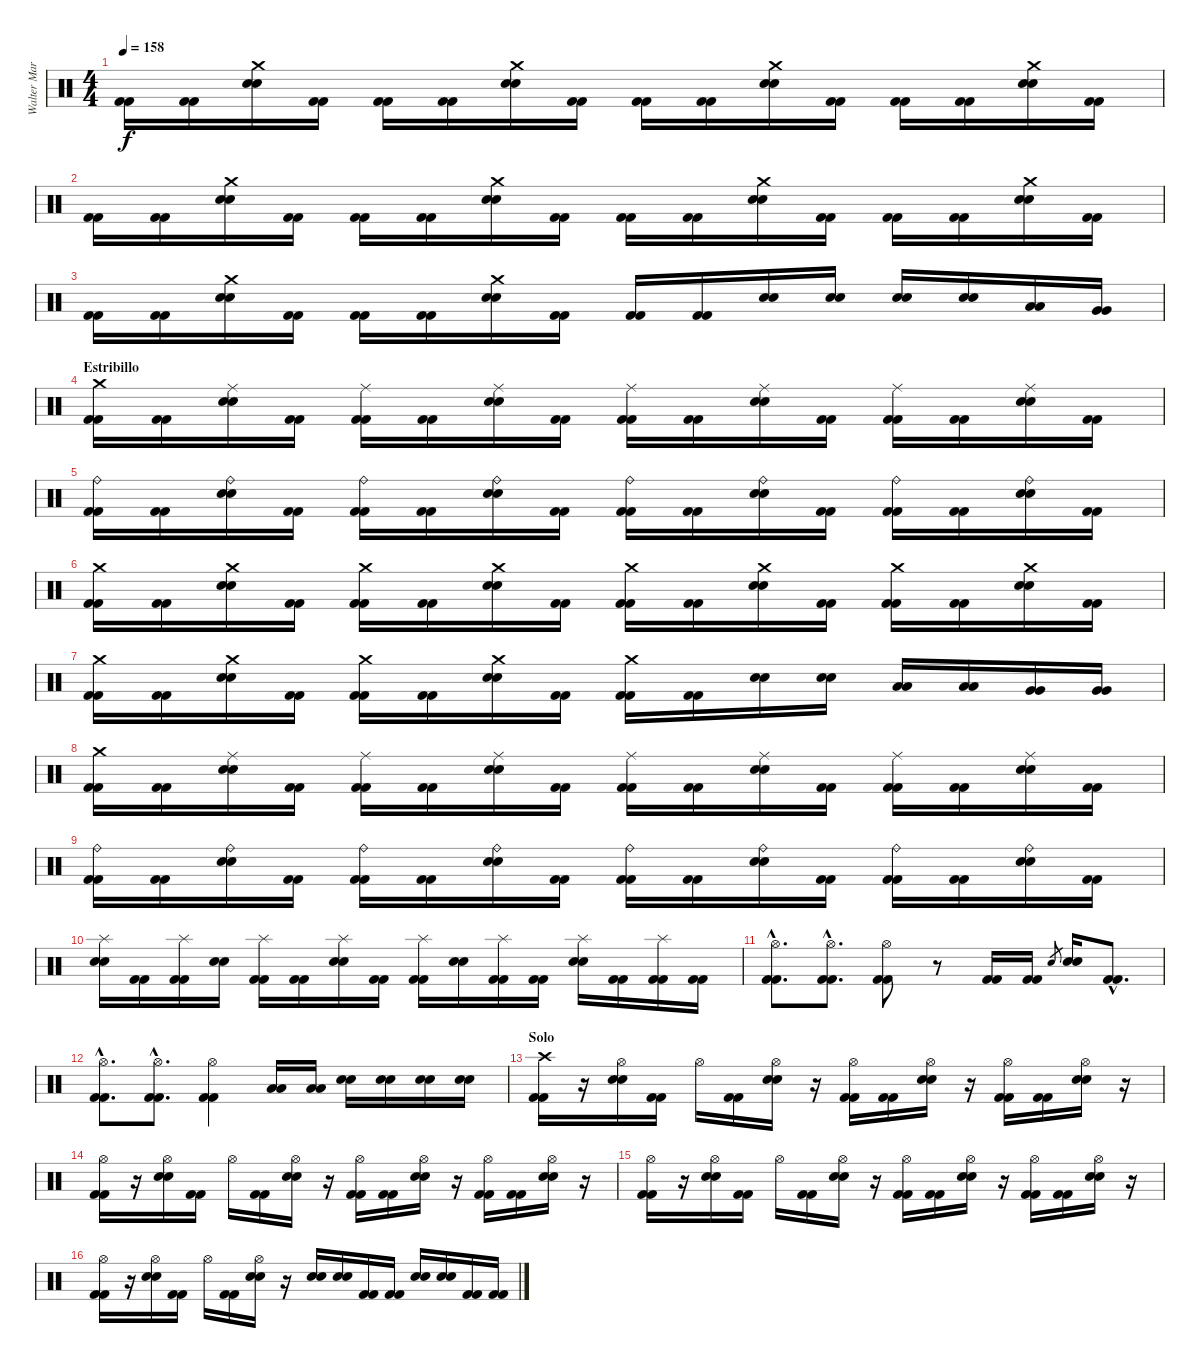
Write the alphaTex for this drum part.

\track ("Walter Martinez (Bateria)" "Walter Mar") {instrument percussion}
\staff {score}
\articulation defaults
\ts (4 4)
\tempo 158
\clef neutral
\ks c
("Kick (hit) 2" "Kick (hit) 2").16{dy f} ("Kick (hit) 2" "Kick (hit) 2").16 ("Crash medium (hit)" "Snare (hit) 2" "Snare (hit) 2").16 ("Kick (hit) 2" "Kick (hit) 2").16 ("Kick (hit) 2" "Kick (hit) 2").16 ("Kick (hit) 2" "Kick (hit) 2").16 ("Crash medium (hit)" "Snare (hit) 2" "Snare (hit) 2").16 ("Kick (hit) 2" "Kick (hit) 2").16 ("Kick (hit) 2" "Kick (hit) 2").16 ("Kick (hit) 2" "Kick (hit) 2").16 ("Crash medium (hit)" "Snare (hit) 2" "Snare (hit) 2").16 ("Kick (hit) 2" "Kick (hit) 2").16 ("Kick (hit) 2" "Kick (hit) 2").16 ("Kick (hit) 2" "Kick (hit) 2").16 ("Crash medium (hit)" "Snare (hit) 2" "Snare (hit) 2").16 ("Kick (hit) 2" "Kick (hit) 2").16 |
("Kick (hit) 2" "Kick (hit) 2").16 ("Kick (hit) 2" "Kick (hit) 2").16 ("Crash medium (hit)" "Snare (hit) 2" "Snare (hit) 2").16 ("Kick (hit) 2" "Kick (hit) 2").16 ("Kick (hit) 2" "Kick (hit) 2").16 ("Kick (hit) 2" "Kick (hit) 2").16 ("Crash medium (hit)" "Snare (hit) 2" "Snare (hit) 2").16 ("Kick (hit) 2" "Kick (hit) 2").16 ("Kick (hit) 2" "Kick (hit) 2").16 ("Kick (hit) 2" "Kick (hit) 2").16 ("Crash medium (hit)" "Snare (hit) 2" "Snare (hit) 2").16 ("Kick (hit) 2" "Kick (hit) 2").16 ("Kick (hit) 2" "Kick (hit) 2").16 ("Kick (hit) 2" "Kick (hit) 2").16 ("Crash medium (hit)" "Snare (hit) 2" "Snare (hit) 2").16 ("Kick (hit) 2" "Kick (hit) 2").16 |
("Kick (hit) 2" "Kick (hit) 2").16 ("Kick (hit) 2" "Kick (hit) 2").16 ("Crash medium (hit)" "Snare (hit) 2" "Snare (hit) 2").16 ("Kick (hit) 2" "Kick (hit) 2").16 ("Kick (hit) 2" "Kick (hit) 2").16 ("Kick (hit) 2" "Kick (hit) 2").16 ("Crash medium (hit)" "Snare (hit) 2" "Snare (hit) 2").16 ("Kick (hit) 2" "Kick (hit) 2").16 ("Kick (hit) 2" "Kick (hit) 2").16 ("Kick (hit) 2" "Kick (hit) 2").16 ("Snare (hit) 2" "Snare (hit) 2").16 ("Snare (hit) 2" "Snare (hit) 2").16 ("Snare (hit) 2" "Snare (hit) 2").16 ("Snare (hit) 2" "Snare (hit) 2").16 ("Low Tom (hit)" "Low Tom (hit)").16 ("Very Low Tom (hit)" "Very Low Tom (hit)").16 |
\section ("" "Estribillo")
("Crash medium (hit)" "Kick (hit) 2" "Kick (hit) 2").16 ("Kick (hit) 2" "Kick (hit) 2").16 ("Ride (middle)" "Snare (hit) 2" "Snare (hit) 2").16 ("Kick (hit) 2" "Kick (hit) 2").16 ("Ride (middle)" "Kick (hit) 2" "Kick (hit) 2").16 ("Kick (hit) 2" "Kick (hit) 2").16 ("Ride (middle)" "Snare (hit) 2" "Snare (hit) 2").16 ("Kick (hit) 2" "Kick (hit) 2").16 ("Ride (middle)" "Kick (hit) 2" "Kick (hit) 2").16 ("Kick (hit) 2" "Kick (hit) 2").16 ("Ride (middle)" "Snare (hit) 2" "Snare (hit) 2").16 ("Kick (hit) 2" "Kick (hit) 2").16 ("Ride (middle)" "Kick (hit) 2" "Kick (hit) 2").16 ("Kick (hit) 2" "Kick (hit) 2").16 ("Ride (middle)" "Snare (hit) 2" "Snare (hit) 2").16 ("Kick (hit) 2" "Kick (hit) 2").16 |
("Ride (bell)" "Kick (hit) 2" "Kick (hit) 2").16 ("Kick (hit) 2" "Kick (hit) 2").16 ("Ride (bell)" "Snare (hit) 2" "Snare (hit) 2").16 ("Kick (hit) 2" "Kick (hit) 2").16 ("Ride (bell)" "Kick (hit) 2" "Kick (hit) 2").16 ("Kick (hit) 2" "Kick (hit) 2").16 ("Ride (bell)" "Snare (hit) 2" "Snare (hit) 2").16 ("Kick (hit) 2" "Kick (hit) 2").16 ("Ride (bell)" "Kick (hit) 2" "Kick (hit) 2").16 ("Kick (hit) 2" "Kick (hit) 2").16 ("Ride (bell)" "Snare (hit) 2" "Snare (hit) 2").16 ("Kick (hit) 2" "Kick (hit) 2").16 ("Ride (bell)" "Kick (hit) 2" "Kick (hit) 2").16 ("Kick (hit) 2" "Kick (hit) 2").16 ("Ride (bell)" "Snare (hit) 2" "Snare (hit) 2").16 ("Kick (hit) 2" "Kick (hit) 2").16 |
("Crash medium (hit)" "Kick (hit) 2" "Kick (hit) 2").16 ("Kick (hit) 2" "Kick (hit) 2").16 ("Crash medium (hit)" "Snare (hit) 2" "Snare (hit) 2").16 ("Kick (hit) 2" "Kick (hit) 2").16 ("Crash medium (hit)" "Kick (hit) 2" "Kick (hit) 2").16 ("Kick (hit) 2" "Kick (hit) 2").16 ("Crash medium (hit)" "Snare (hit) 2" "Snare (hit) 2").16 ("Kick (hit) 2" "Kick (hit) 2").16 ("Crash medium (hit)" "Kick (hit) 2" "Kick (hit) 2").16 ("Kick (hit) 2" "Kick (hit) 2").16 ("Crash medium (hit)" "Snare (hit) 2" "Snare (hit) 2").16 ("Kick (hit) 2" "Kick (hit) 2").16 ("Crash medium (hit)" "Kick (hit) 2" "Kick (hit) 2").16 ("Kick (hit) 2" "Kick (hit) 2").16 ("Crash medium (hit)" "Snare (hit) 2" "Snare (hit) 2").16 ("Kick (hit) 2" "Kick (hit) 2").16 |
("Crash medium (hit)" "Kick (hit) 2" "Kick (hit) 2").16 ("Kick (hit) 2" "Kick (hit) 2").16 ("Crash medium (hit)" "Snare (hit) 2" "Snare (hit) 2").16 ("Kick (hit) 2" "Kick (hit) 2").16 ("Crash medium (hit)" "Kick (hit) 2" "Kick (hit) 2").16 ("Kick (hit) 2" "Kick (hit) 2").16 ("Crash medium (hit)" "Snare (hit) 2" "Snare (hit) 2").16 ("Kick (hit) 2" "Kick (hit) 2").16 ("Crash medium (hit)" "Kick (hit) 2" "Kick (hit) 2").16 ("Kick (hit) 2" "Kick (hit) 2").16 ("Snare (hit) 2" "Snare (hit) 2").16 ("Snare (hit) 2" "Snare (hit) 2").16 ("Low Tom (hit)" "Low Tom (hit)").16 ("Low Tom (hit)" "Low Tom (hit)").16 ("Very Low Tom (hit)" "Very Low Tom (hit)").16 ("Very Low Tom (hit)" "Very Low Tom (hit)").16 |
("Crash medium (hit)" "Kick (hit) 2" "Kick (hit) 2").16 ("Kick (hit) 2" "Kick (hit) 2").16 ("Ride (middle)" "Snare (hit) 2" "Snare (hit) 2").16 ("Kick (hit) 2" "Kick (hit) 2").16 ("Ride (middle)" "Kick (hit) 2" "Kick (hit) 2").16 ("Kick (hit) 2" "Kick (hit) 2").16 ("Ride (middle)" "Snare (hit) 2" "Snare (hit) 2").16 ("Kick (hit) 2" "Kick (hit) 2").16 ("Ride (middle)" "Kick (hit) 2" "Kick (hit) 2").16 ("Kick (hit) 2" "Kick (hit) 2").16 ("Ride (middle)" "Snare (hit) 2" "Snare (hit) 2").16 ("Kick (hit) 2" "Kick (hit) 2").16 ("Ride (middle)" "Kick (hit) 2" "Kick (hit) 2").16 ("Kick (hit) 2" "Kick (hit) 2").16 ("Ride (middle)" "Snare (hit) 2" "Snare (hit) 2").16 ("Kick (hit) 2" "Kick (hit) 2").16 |
("Ride (bell)" "Kick (hit) 2" "Kick (hit) 2").16 ("Kick (hit) 2" "Kick (hit) 2").16 ("Ride (bell)" "Snare (hit) 2" "Snare (hit) 2").16 ("Kick (hit) 2" "Kick (hit) 2").16 ("Ride (bell)" "Kick (hit) 2" "Kick (hit) 2").16 ("Kick (hit) 2" "Kick (hit) 2").16 ("Ride (bell)" "Snare (hit) 2" "Snare (hit) 2").16 ("Kick (hit) 2" "Kick (hit) 2").16 ("Ride (bell)" "Kick (hit) 2" "Kick (hit) 2").16 ("Kick (hit) 2" "Kick (hit) 2").16 ("Ride (bell)" "Snare (hit) 2" "Snare (hit) 2").16 ("Kick (hit) 2" "Kick (hit) 2").16 ("Ride (bell)" "Kick (hit) 2" "Kick (hit) 2").16 ("Kick (hit) 2" "Kick (hit) 2").16 ("Ride (bell)" "Snare (hit) 2" "Snare (hit) 2").16 ("Kick (hit) 2" "Kick (hit) 2").16 |
("Splash (hit)" "Snare (hit) 2" "Snare (hit) 2").16 ("Kick (hit) 2" "Kick (hit) 2").16 ("Splash (hit)" "Kick (hit) 2" "Kick (hit) 2").16 ("Snare (hit) 2" "Snare (hit) 2").16 ("Splash (hit)" "Kick (hit) 2" "Kick (hit) 2").16 ("Kick (hit) 2" "Kick (hit) 2").16 ("Splash (hit)" "Snare (hit) 2" "Snare (hit) 2").16 ("Kick (hit) 2" "Kick (hit) 2").16 ("Splash (hit)" "Kick (hit) 2" "Kick (hit) 2").16 ("Snare (hit) 2" "Snare (hit) 2").16 ("Splash (hit)" "Kick (hit) 2" "Kick (hit) 2").16 ("Kick (hit) 2" "Kick (hit) 2").16 ("Splash (hit)" "Snare (hit) 2" "Snare (hit) 2").16 ("Kick (hit) 2" "Kick (hit) 2").16 ("Splash (hit)" "Kick (hit) 2" "Kick (hit) 2").16 ("Kick (hit) 2" "Kick (hit) 2").16 |
("Hi-Hat (open)"{hac} "Kick (hit) 2"{hac} "Kick (hit) 2"{hac}).8{d} ("Hi-Hat (open)"{hac} "Kick (hit) 2"{hac} "Kick (hit) 2"{hac}).8{d} ("Hi-Hat (open)" "Kick (hit) 2" "Kick (hit) 2").8 r.8 ("Kick (hit) 2" "Kick (hit) 2").16 ("Kick (hit) 2" "Kick (hit) 2").16 "Snare (hit) 2".8{gr} ("Snare (hit) 2" "Snare (hit) 2").16 ("Kick (hit) 2"{hac} "Kick (hit) 2"{hac}).8{d} |
("Hi-Hat (open)"{hac} "Kick (hit) 2"{hac} "Kick (hit) 2"{hac}).8{d} ("Hi-Hat (open)"{hac} "Kick (hit) 2"{hac} "Kick (hit) 2"{hac}).8{d} ("Hi-Hat (open)" "Kick (hit) 2" "Kick (hit) 2").4 ("Low Tom (hit)" "Low Tom (hit)").16 ("Low Tom (hit)" "Low Tom (hit)").16 ("Snare (hit) 2" "Snare (hit) 2").16 ("Snare (hit) 2" "Snare (hit) 2").16 ("Snare (hit) 2" "Snare (hit) 2").16 ("Snare (hit) 2" "Snare (hit) 2").16 |
\section ("" "Solo")
("Crash high (hit)" "Kick (hit) 2" "Kick (hit) 2").16 r.16 ("Hi-Hat (open)" "Snare (hit) 2" "Snare (hit) 2").16 ("Kick (hit) 2" "Kick (hit) 2").16 "Hi-Hat (open)".16 ("Kick (hit) 2" "Kick (hit) 2").16 ("Hi-Hat (open)" "Snare (hit) 2" "Snare (hit) 2").16 r.16 ("Hi-Hat (open)" "Kick (hit) 2" "Kick (hit) 2").16 ("Kick (hit) 2" "Kick (hit) 2").16 ("Hi-Hat (open)" "Snare (hit) 2" "Snare (hit) 2").16 r.16 ("Hi-Hat (open)" "Kick (hit) 2" "Kick (hit) 2").16 ("Kick (hit) 2" "Kick (hit) 2").16 ("Hi-Hat (open)" "Snare (hit) 2" "Snare (hit) 2").16 r.16 |
("Hi-Hat (open)" "Kick (hit) 2" "Kick (hit) 2").16 r.16 ("Hi-Hat (open)" "Snare (hit) 2" "Snare (hit) 2").16 ("Kick (hit) 2" "Kick (hit) 2").16 "Hi-Hat (open)".16 ("Kick (hit) 2" "Kick (hit) 2").16 ("Hi-Hat (open)" "Snare (hit) 2" "Snare (hit) 2").16 r.16 ("Hi-Hat (open)" "Kick (hit) 2" "Kick (hit) 2").16 ("Kick (hit) 2" "Kick (hit) 2").16 ("Hi-Hat (open)" "Snare (hit) 2" "Snare (hit) 2").16 r.16 ("Hi-Hat (open)" "Kick (hit) 2" "Kick (hit) 2").16 ("Kick (hit) 2" "Kick (hit) 2").16 ("Hi-Hat (open)" "Snare (hit) 2" "Snare (hit) 2").16 r.16 |
("Hi-Hat (open)" "Kick (hit) 2" "Kick (hit) 2").16 r.16 ("Hi-Hat (open)" "Snare (hit) 2" "Snare (hit) 2").16 ("Kick (hit) 2" "Kick (hit) 2").16 "Hi-Hat (open)".16 ("Kick (hit) 2" "Kick (hit) 2").16 ("Hi-Hat (open)" "Snare (hit) 2" "Snare (hit) 2").16 r.16 ("Hi-Hat (open)" "Kick (hit) 2" "Kick (hit) 2").16 ("Kick (hit) 2" "Kick (hit) 2").16 ("Hi-Hat (open)" "Snare (hit) 2" "Snare (hit) 2").16 r.16 ("Hi-Hat (open)" "Kick (hit) 2" "Kick (hit) 2").16 ("Kick (hit) 2" "Kick (hit) 2").16 ("Hi-Hat (open)" "Snare (hit) 2" "Snare (hit) 2").16 r.16 |
("Hi-Hat (open)" "Kick (hit) 2" "Kick (hit) 2").16 r.16 ("Hi-Hat (open)" "Snare (hit) 2" "Snare (hit) 2").16 ("Kick (hit) 2" "Kick (hit) 2").16 "Hi-Hat (open)".16 ("Kick (hit) 2" "Kick (hit) 2").16 ("Hi-Hat (open)" "Snare (hit) 2" "Snare (hit) 2").16 r.16 ("Snare (hit) 2" "Snare (hit) 2").16 ("Snare (hit) 2" "Snare (hit) 2").16 ("Kick (hit) 2" "Kick (hit) 2").16 ("Kick (hit) 2" "Kick (hit) 2").16 ("Snare (hit) 2" "Snare (hit) 2").16 ("Snare (hit) 2" "Snare (hit) 2").16 ("Kick (hit) 2" "Kick (hit) 2").16 ("Kick (hit) 2" "Kick (hit) 2").16
